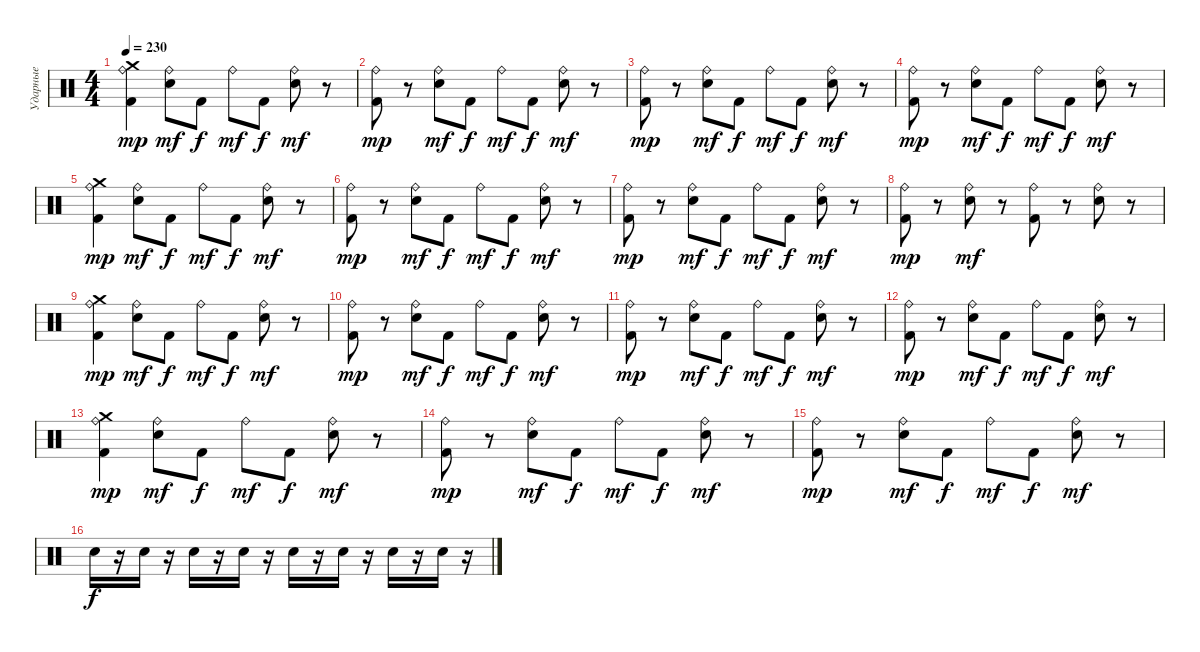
\track ("Ударные" "Ударные") {instrument percussion}
\staff {score}
\articulation defaults
\ts (4 4)
\tempo 230
\clef neutral
\ks c
("Crash medium (hit)" "Ride (bell)" "Kick (hit) 2").4{dy mp} ("Ride (bell)" "Snare (hit) 2").8{dy mf} "Kick (hit) 2".8{dy f} "Ride (bell)".8{dy mf} "Kick (hit) 2".8{dy f} ("Ride (bell)" "Snare (hit) 2").8{dy mf} r.8 |
("Ride (bell)" "Kick (hit) 2").8{dy mp} r.8 ("Ride (bell)" "Snare (hit) 2").8{dy mf} "Kick (hit) 2".8{dy f} "Ride (bell)".8{dy mf} "Kick (hit) 2".8{dy f} ("Ride (bell)" "Snare (hit) 2").8{dy mf} r.8 |
("Ride (bell)" "Kick (hit) 2").8{dy mp} r.8 ("Ride (bell)" "Snare (hit) 2").8{dy mf} "Kick (hit) 2".8{dy f} "Ride (bell)".8{dy mf} "Kick (hit) 2".8{dy f} ("Ride (bell)" "Snare (hit) 2").8{dy mf} r.8 |
("Ride (bell)" "Kick (hit) 2").8{dy mp} r.8 ("Ride (bell)" "Snare (hit) 2").8{dy mf} "Kick (hit) 2".8{dy f} "Ride (bell)".8{dy mf} "Kick (hit) 2".8{dy f} ("Ride (bell)" "Snare (hit) 2").8{dy mf} r.8 |
("Crash medium (hit)" "Ride (bell)" "Kick (hit) 2").4{dy mp} ("Ride (bell)" "Snare (hit) 2").8{dy mf} "Kick (hit) 2".8{dy f} "Ride (bell)".8{dy mf} "Kick (hit) 2".8{dy f} ("Ride (bell)" "Snare (hit) 2").8{dy mf} r.8 |
("Ride (bell)" "Kick (hit) 2").8{dy mp} r.8 ("Ride (bell)" "Snare (hit) 2").8{dy mf} "Kick (hit) 2".8{dy f} "Ride (bell)".8{dy mf} "Kick (hit) 2".8{dy f} ("Ride (bell)" "Snare (hit) 2").8{dy mf} r.8 |
("Ride (bell)" "Kick (hit) 2").8{dy mp} r.8 ("Ride (bell)" "Snare (hit) 2").8{dy mf} "Kick (hit) 2".8{dy f} "Ride (bell)".8{dy mf} "Kick (hit) 2".8{dy f} ("Ride (bell)" "Snare (hit) 2").8{dy mf} r.8 |
("Ride (bell)" "Kick (hit) 2").8{dy mp} r.8 ("Ride (bell)" "Snare (hit) 2").8{dy mf} r.8 ("Kick (hit) 2" "Ride (bell)").8 r.8 ("Ride (bell)" "Snare (hit) 2").8 r.8 |
("Crash medium (hit)" "Ride (bell)" "Kick (hit) 2").4{dy mp} ("Ride (bell)" "Snare (hit) 2").8{dy mf} "Kick (hit) 2".8{dy f} "Ride (bell)".8{dy mf} "Kick (hit) 2".8{dy f} ("Ride (bell)" "Snare (hit) 2").8{dy mf} r.8 |
("Ride (bell)" "Kick (hit) 2").8{dy mp} r.8 ("Ride (bell)" "Snare (hit) 2").8{dy mf} "Kick (hit) 2".8{dy f} "Ride (bell)".8{dy mf} "Kick (hit) 2".8{dy f} ("Ride (bell)" "Snare (hit) 2").8{dy mf} r.8 |
("Ride (bell)" "Kick (hit) 2").8{dy mp} r.8 ("Ride (bell)" "Snare (hit) 2").8{dy mf} "Kick (hit) 2".8{dy f} "Ride (bell)".8{dy mf} "Kick (hit) 2".8{dy f} ("Ride (bell)" "Snare (hit) 2").8{dy mf} r.8 |
("Ride (bell)" "Kick (hit) 2").8{dy mp} r.8 ("Ride (bell)" "Snare (hit) 2").8{dy mf} "Kick (hit) 2".8{dy f} "Ride (bell)".8{dy mf} "Kick (hit) 2".8{dy f} ("Ride (bell)" "Snare (hit) 2").8{dy mf} r.8 |
("Crash medium (hit)" "Ride (bell)" "Kick (hit) 2").4{dy mp} ("Ride (bell)" "Snare (hit) 2").8{dy mf} "Kick (hit) 2".8{dy f} "Ride (bell)".8{dy mf} "Kick (hit) 2".8{dy f} ("Ride (bell)" "Snare (hit) 2").8{dy mf} r.8 |
("Ride (bell)" "Kick (hit) 2").8{dy mp} r.8 ("Ride (bell)" "Snare (hit) 2").8{dy mf} "Kick (hit) 2".8{dy f} "Ride (bell)".8{dy mf} "Kick (hit) 2".8{dy f} ("Ride (bell)" "Snare (hit) 2").8{dy mf} r.8 |
("Ride (bell)" "Kick (hit) 2").8{dy mp} r.8 ("Ride (bell)" "Snare (hit) 2").8{dy mf} "Kick (hit) 2".8{dy f} "Ride (bell)".8{dy mf} "Kick (hit) 2".8{dy f} ("Ride (bell)" "Snare (hit) 2").8{dy mf} r.8 |
"Snare (hit) 2".16{dy f} r.16 "Snare (hit) 2".16 r.16 "Snare (hit) 2".16 r.16 "Snare (hit) 2".16 r.16 "Snare (hit) 2".16 r.16 "Snare (hit) 2".16 r.16 "Snare (hit) 2".16 r.16 "Snare (hit) 2".16 r.16
